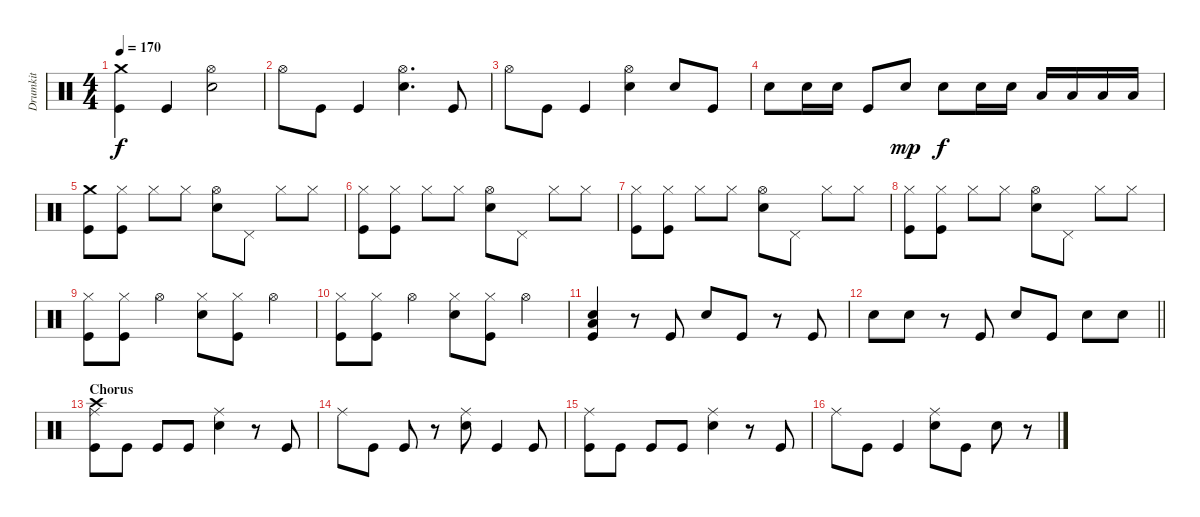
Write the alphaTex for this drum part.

\track ("Drumkit" "Drumkit") {instrument percussion}
\staff {score}
\articulation defaults
\ts (4 4)
\tempo 170
\clef neutral
\ks c
("Crash medium (hit)" "Kick (hit)").4{dy f} "Kick (hit)".4 ("Hi-Hat (open)" "Snare (hit) 2").2 |
"Hi-Hat (open)".8 "Kick (hit)".8 "Kick (hit)".4 ("Hi-Hat (open)" "Snare (hit) 2").4{d} "Kick (hit)".8 |
"Hi-Hat (open)".8 "Kick (hit)".8 "Kick (hit)".4 ("Hi-Hat (open)" "Snare (hit) 2").4 "Snare (hit) 2".8 "Kick (hit)".8 |
"Snare (hit) 2".8 "Snare (hit) 2".16 "Snare (hit) 2".16 "Kick (hit)".8 "Snare (hit) 2".8{dy mp} "Snare (hit) 2".8{dy f} "Snare (hit) 2".16 "Snare (hit) 2".16 "Low Tom (hit)".16 "Low Tom (hit)".16 "Low Floor Tom (hit)".16 "Low Floor Tom (hit)".16 |
("Crash medium (hit)" "Kick (hit)").8 ("Hi-Hat (closed)" "Kick (hit)").8 "Hi-Hat (closed)".8 "Hi-Hat (closed)".8 ("Hi-Hat (open)" "Snare (hit) 2").8 "Pedal Hi-Hat (hit)".8 "Hi-Hat (closed)".8 "Hi-Hat (closed)".8 |
("Hi-Hat (closed)" "Kick (hit)").8 ("Hi-Hat (closed)" "Kick (hit)").8 "Hi-Hat (closed)".8 "Hi-Hat (closed)".8 ("Hi-Hat (open)" "Snare (hit) 2").8 "Pedal Hi-Hat (hit)".8 "Hi-Hat (closed)".8 "Hi-Hat (closed)".8 |
("Hi-Hat (closed)" "Kick (hit)").8 ("Hi-Hat (closed)" "Kick (hit)").8 "Hi-Hat (closed)".8 "Hi-Hat (closed)".8 ("Hi-Hat (open)" "Snare (hit) 2").8 "Pedal Hi-Hat (hit)".8 "Hi-Hat (closed)".8 "Hi-Hat (closed)".8 |
("Hi-Hat (closed)" "Kick (hit)").8 ("Hi-Hat (closed)" "Kick (hit)").8 "Hi-Hat (closed)".8 "Hi-Hat (closed)".8 ("Hi-Hat (open)" "Snare (hit) 2").8 "Pedal Hi-Hat (hit)".8 "Hi-Hat (closed)".8 "Hi-Hat (closed)".8 |
("Hi-Hat (closed)" "Kick (hit)").8 ("Hi-Hat (closed)" "Kick (hit)").8 "Hi-Hat (open)".4 ("Hi-Hat (closed)" "Snare (hit) 2").8 ("Hi-Hat (closed)" "Kick (hit)").8 "Hi-Hat (open)".4 |
("Hi-Hat (closed)" "Kick (hit)").8 ("Hi-Hat (closed)" "Kick (hit)").8 "Hi-Hat (open)".4 ("Hi-Hat (closed)" "Snare (hit) 2").8 ("Hi-Hat (closed)" "Kick (hit)").8 "Hi-Hat (open)".4 |
("Low Floor Tom (hit)" "Snare (hit) 2" "Kick (hit)").4 r.8 "Kick (hit)".8 "Snare (hit) 2".8 "Kick (hit)".8 r.8 "Kick (hit)".8 |
\barLineRight lightlight "Snare (hit) 2".8 "Snare (hit) 2".8
r.8 "Kick (hit)".8 "Snare (hit) 2".8 "Kick (hit)".8 "Snare (hit) 2".8 "Snare (hit) 2".8 |
\section ("" "Chorus")
("Ride (middle)" "Crash high (hit)" "Kick (hit)").8 "Kick (hit)".8 "Kick (hit)".8 "Kick (hit)".8 ("Ride (middle)" "Snare (hit) 2").4 r.8 "Kick (hit)".8 |
"Ride (middle)".8 "Kick (hit)".8 "Kick (hit)".8 r.8 ("Ride (middle)" "Snare (hit) 2").8 "Kick (hit)".4 "Kick (hit)".8 |
("Ride (middle)" "Kick (hit)").8 "Kick (hit)".8 "Kick (hit)".8 "Kick (hit)".8 ("Ride (middle)" "Snare (hit) 2").4 r.8 "Kick (hit)".8 |
"Ride (middle)".8 "Kick (hit)".8 "Kick (hit)".4 ("Ride (middle)" "Snare (hit) 2").8 "Kick (hit)".8 "Snare (hit) 2".8 r.8
